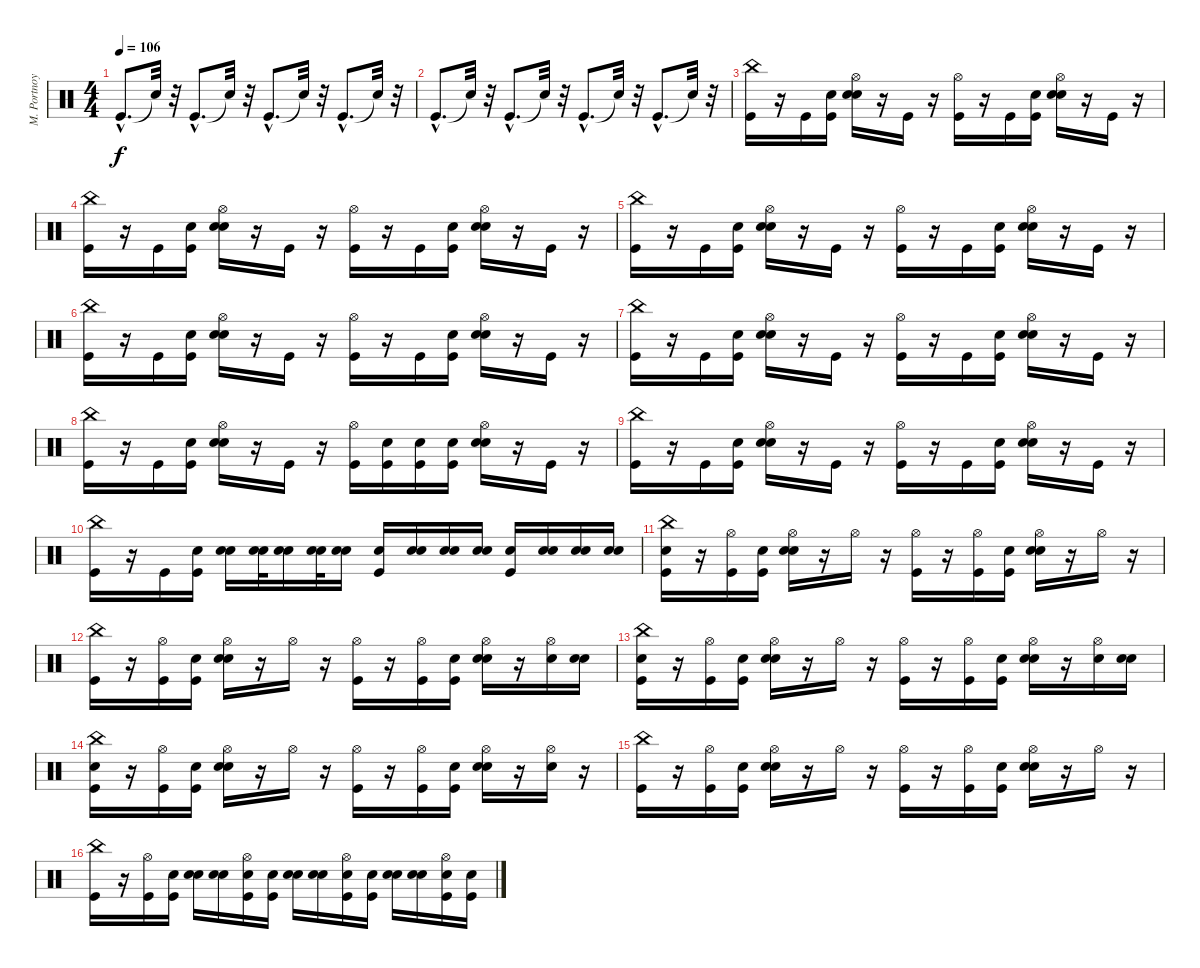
\track ("M. Portnoy" "M. Portnoy") {instrument percussion}
\staff {score}
\articulation defaults
\ts (4 4)
\tempo 106
\clef neutral
\ks c "Kick (hit)"{hac}.8{d dy f} "Snare (hit)"{t}.32
r.32 "Kick (hit)"{hac}.8{d} "Snare (hit)"{t}.32 r.32 "Kick (hit)"{hac}.8{d} "Snare (hit)"{t}.32 r.32 "Kick (hit)"{hac}.8{d} "Snare (hit)"{t}.32 r.32 |
"Kick (hit)"{hac}.8{d} "Snare (hit)"{t}.32 r.32 "Kick (hit)"{hac}.8{d} "Snare (hit)"{t}.32 r.32 "Kick (hit)"{hac}.8{d} "Snare (hit)"{t}.32 r.32 "Kick (hit)"{hac}.8{d} "Snare (hit)"{t}.32 r.32 |
("Kick (hit)" "China (hit)").16 r.16 "Kick (hit)".16 ("Snare (hit)" "Kick (hit)").16 ("Snare (hit)" "Snare (hit) 2" "Hi-Hat (open)").16 r.16 "Kick (hit)".16 r.16 ("Kick (hit)" "Hi-Hat (open)").16 r.16 "Kick (hit)".16 ("Snare (hit)" "Kick (hit)").16 ("Snare (hit)" "Snare (hit) 2" "Hi-Hat (open)").16 r.16 "Kick (hit)".16 r.16 |
("Kick (hit)" "China (hit)").16 r.16 "Kick (hit)".16 ("Snare (hit)" "Kick (hit)").16 ("Snare (hit)" "Snare (hit) 2" "Hi-Hat (open)").16 r.16 "Kick (hit)".16 r.16 ("Kick (hit)" "Hi-Hat (open)").16 r.16 "Kick (hit)".16 ("Snare (hit)" "Kick (hit)").16 ("Snare (hit)" "Snare (hit) 2" "Hi-Hat (open)").16 r.16 "Kick (hit)".16 r.16 |
("Kick (hit)" "China (hit)").16 r.16 "Kick (hit)".16 ("Snare (hit)" "Kick (hit)").16 ("Snare (hit)" "Snare (hit) 2" "Hi-Hat (open)").16 r.16 "Kick (hit)".16 r.16 ("Kick (hit)" "Hi-Hat (open)").16 r.16 "Kick (hit)".16 ("Snare (hit)" "Kick (hit)").16 ("Snare (hit)" "Snare (hit) 2" "Hi-Hat (open)").16 r.16 "Kick (hit)".16 r.16 |
("Kick (hit)" "China (hit)").16 r.16 "Kick (hit)".16 ("Snare (hit)" "Kick (hit)").16 ("Snare (hit)" "Snare (hit) 2" "Hi-Hat (open)").16 r.16 "Kick (hit)".16 r.16 ("Kick (hit)" "Hi-Hat (open)").16 r.16 "Kick (hit)".16 ("Snare (hit)" "Kick (hit)").16 ("Snare (hit)" "Snare (hit) 2" "Hi-Hat (open)").16 r.16 "Kick (hit)".16 r.16 |
("Kick (hit)" "China (hit)").16 r.16 "Kick (hit)".16 ("Snare (hit)" "Kick (hit)").16 ("Snare (hit)" "Snare (hit) 2" "Hi-Hat (open)").16 r.16 "Kick (hit)".16 r.16 ("Kick (hit)" "Hi-Hat (open)").16 r.16 "Kick (hit)".16 ("Snare (hit)" "Kick (hit)").16 ("Snare (hit)" "Snare (hit) 2" "Hi-Hat (open)").16 r.16 "Kick (hit)".16 r.16 |
("Kick (hit)" "China (hit)").16 r.16 "Kick (hit)".16 ("Snare (hit)" "Kick (hit)").16 ("Snare (hit)" "Snare (hit) 2" "Hi-Hat (open)").16 r.16 "Kick (hit)".16 r.16 ("Kick (hit)" "Hi-Hat (open)").16 ("Snare (hit)" "Kick (hit)").16 ("Snare (hit)" "Kick (hit)").16 ("Snare (hit)" "Kick (hit)").16 ("Snare (hit)" "Snare (hit) 2" "Hi-Hat (open)").16 r.16 "Kick (hit)".16 r.16 |
("Kick (hit)" "China (hit)").16 r.16 "Kick (hit)".16 ("Snare (hit)" "Kick (hit)").16 ("Snare (hit)" "Snare (hit) 2" "Hi-Hat (open)").16 r.16 "Kick (hit)".16 r.16 ("Kick (hit)" "Hi-Hat (open)").16 r.16 "Kick (hit)".16 ("Snare (hit)" "Kick (hit)").16 ("Snare (hit)" "Snare (hit) 2" "Hi-Hat (open)").16 r.16 "Kick (hit)".16 r.16 |
("Kick (hit)" "China (hit)").16 r.16 "Kick (hit)".16 ("Snare (hit)" "Kick (hit)").16 ("Snare (hit)" "Snare (hit) 2").16 ("Snare (hit)" "Snare (hit) 2").32 ("Snare (hit)" "Snare (hit) 2").16 ("Snare (hit)" "Snare (hit) 2").32 ("Snare (hit)" "Snare (hit) 2").16 ("Snare (hit)" "Kick (hit)").16 ("Snare (hit)" "Snare (hit) 2").16 ("Snare (hit)" "Snare (hit) 2").16 ("Snare (hit)" "Snare (hit) 2").16 ("Snare (hit)" "Kick (hit)").16 ("Snare (hit)" "Snare (hit) 2").16 ("Snare (hit)" "Snare (hit) 2").16 ("Snare (hit)" "Snare (hit) 2").16 |
("Snare (hit)" "Kick (hit)" "China (hit)").16 r.16 ("Kick (hit)" "Hi-Hat (open)").16 ("Snare (hit)" "Kick (hit)").16 ("Snare (hit)" "Snare (hit) 2" "Hi-Hat (open)").16 r.16 "Hi-Hat (open)".16 r.16 ("Kick (hit)" "Hi-Hat (open)").16 r.16 ("Kick (hit)" "Hi-Hat (open)").16 ("Snare (hit)" "Kick (hit)").16 ("Snare (hit)" "Snare (hit) 2" "Hi-Hat (open)").16 r.16 "Hi-Hat (open)".16 r.16 |
("Kick (hit)" "China (hit)").16 r.16 ("Kick (hit)" "Hi-Hat (open)").16 ("Snare (hit)" "Kick (hit)").16 ("Snare (hit)" "Snare (hit) 2" "Hi-Hat (open)").16 r.16 "Hi-Hat (open)".16 r.16 ("Kick (hit)" "Hi-Hat (open)").16 r.16 ("Kick (hit)" "Hi-Hat (open)").16 ("Snare (hit)" "Kick (hit)").16 ("Snare (hit)" "Snare (hit) 2" "Hi-Hat (open)").16 r.16 ("Snare (hit) 2" "Hi-Hat (open)").16 ("Snare (hit)" "Snare (hit) 2").16 |
("Snare (hit)" "Kick (hit)" "China (hit)").16 r.16 ("Kick (hit)" "Hi-Hat (open)").16 ("Snare (hit)" "Kick (hit)").16 ("Snare (hit)" "Snare (hit) 2" "Hi-Hat (open)").16 r.16 "Hi-Hat (open)".16 r.16 ("Kick (hit)" "Hi-Hat (open)").16 r.16 ("Kick (hit)" "Hi-Hat (open)").16 ("Snare (hit)" "Kick (hit)").16 ("Snare (hit)" "Snare (hit) 2" "Hi-Hat (open)").16 r.16 ("Snare (hit) 2" "Hi-Hat (open)").16 ("Snare (hit)" "Snare (hit) 2").16 |
("Snare (hit)" "Kick (hit)" "China (hit)").16 r.16 ("Kick (hit)" "Hi-Hat (open)").16 ("Snare (hit)" "Kick (hit)").16 ("Snare (hit)" "Snare (hit) 2" "Hi-Hat (open)").16 r.16 "Hi-Hat (open)".16 r.16 ("Kick (hit)" "Hi-Hat (open)").16 r.16 ("Kick (hit)" "Hi-Hat (open)").16 ("Snare (hit)" "Kick (hit)").16 ("Snare (hit)" "Snare (hit) 2" "Hi-Hat (open)").16 r.16 ("Snare (hit) 2" "Hi-Hat (open)").16 r.16 |
("Kick (hit)" "China (hit)").16 r.16 ("Kick (hit)" "Hi-Hat (open)").16 ("Snare (hit)" "Kick (hit)").16 ("Snare (hit)" "Snare (hit) 2" "Hi-Hat (open)").16 r.16 "Hi-Hat (open)".16 r.16 ("Kick (hit)" "Hi-Hat (open)").16 r.16 ("Kick (hit)" "Hi-Hat (open)").16 ("Snare (hit)" "Kick (hit)").16 ("Snare (hit)" "Snare (hit) 2" "Hi-Hat (open)").16 r.16 "Hi-Hat (open)".16 r.16 |
("Kick (hit)" "China (hit)").16 r.16 ("Kick (hit)" "Hi-Hat (open)").16 ("Snare (hit)" "Kick (hit)").16 ("Snare (hit)" "Snare (hit) 2").16 ("Snare (hit)" "Snare (hit) 2").16 ("Snare (hit)" "Kick (hit)" "Hi-Hat (open)").16 ("Snare (hit)" "Kick (hit)").16 ("Snare (hit)" "Snare (hit) 2").16 ("Snare (hit)" "Snare (hit) 2").16 ("Snare (hit)" "Kick (hit)" "Hi-Hat (open)").16 ("Snare (hit)" "Kick (hit)").16 ("Snare (hit)" "Snare (hit) 2").16 ("Snare (hit)" "Snare (hit) 2").16 ("Snare (hit)" "Kick (hit)" "Hi-Hat (open)").16 ("Snare (hit)" "Kick (hit)").16
